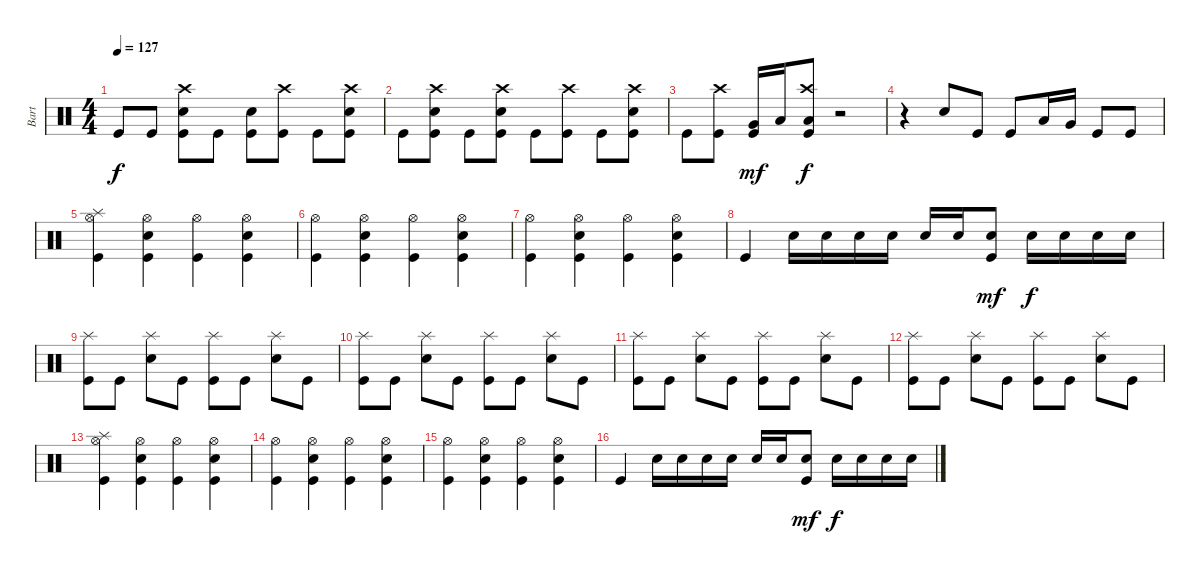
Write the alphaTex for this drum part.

\track ("Bart" "Bart") {instrument percussion}
\staff {score}
\articulation defaults
\ts (4 4)
\tempo 127
\clef neutral
\ks c "Kick (hit)".8{dy f} "Kick (hit)".8
("Kick (hit)" "Electric Snare (hit)" "Crash high (hit)").8 "Kick (hit)".8 ("Kick (hit)" "Electric Snare (hit)").8 ("Kick (hit)" "Crash high (hit)").8 "Kick (hit)".8 ("Kick (hit)" "Electric Snare (hit)" "Crash high (hit)").8 |
"Kick (hit)".8 ("Kick (hit)" "Electric Snare (hit)" "Crash high (hit)").8 "Kick (hit)".8 ("Kick (hit)" "Electric Snare (hit)" "Crash high (hit)").8 "Kick (hit)".8 ("Kick (hit)" "Crash high (hit)").8 "Kick (hit)".8 ("Kick (hit)" "Electric Snare (hit)" "Crash high (hit)").8 |
"Kick (hit)".8 ("Kick (hit)" "Crash high (hit)").8 ("Kick (hit)" "Very Low Tom (hit)").16{dy mf} "Low Tom (hit)".16 ("Kick (hit)" "Low Floor Tom (hit)" "Crash high (hit)").8{dy f} r.2 |
r.4 "Electric Snare (hit)".8 "Kick (hit)".8 "Kick (hit)".8 "Low Tom (hit)".16 "Very Low Tom (hit)".16 "Kick (hit)".8 "Kick (hit)".8 |
("Kick (hit)" "Hi-Hat (open)" "Splash (hit)").4 ("Kick (hit)" "Electric Snare (hit)" "Hi-Hat (open)").4 ("Kick (hit)" "Hi-Hat (open)").4 ("Kick (hit)" "Electric Snare (hit)" "Hi-Hat (open)").4 |
("Kick (hit)" "Hi-Hat (open)").4 ("Kick (hit)" "Electric Snare (hit)" "Hi-Hat (open)").4 ("Kick (hit)" "Hi-Hat (open)").4 ("Kick (hit)" "Electric Snare (hit)" "Hi-Hat (open)").4 |
("Kick (hit)" "Hi-Hat (open)").4 ("Kick (hit)" "Electric Snare (hit)" "Hi-Hat (open)").4 ("Kick (hit)" "Hi-Hat (open)").4 ("Kick (hit)" "Electric Snare (hit)" "Hi-Hat (open)").4 |
"Kick (hit)".4 "Electric Snare (hit)".16 "Electric Snare (hit)".16 "Electric Snare (hit)".16 "Electric Snare (hit)".16 "Electric Snare (hit)".16 "Electric Snare (hit)".16 ("Kick (hit)" "Electric Snare (hit)").8{dy mf} "Electric Snare (hit)".16{dy f} "Electric Snare (hit)".16 "Electric Snare (hit)".16 "Electric Snare (hit)".16 |
("Kick (hit)" "Splash (hit)").8 "Kick (hit)".8 ("Electric Snare (hit)" "Splash (hit)").8 "Kick (hit)".8 ("Kick (hit)" "Splash (hit)").8 "Kick (hit)".8 ("Electric Snare (hit)" "Splash (hit)").8 "Kick (hit)".8 |
("Kick (hit)" "Splash (hit)").8 "Kick (hit)".8 ("Electric Snare (hit)" "Splash (hit)").8 "Kick (hit)".8 ("Kick (hit)" "Splash (hit)").8 "Kick (hit)".8 ("Electric Snare (hit)" "Splash (hit)").8 "Kick (hit)".8 |
("Kick (hit)" "Splash (hit)").8 "Kick (hit)".8 ("Electric Snare (hit)" "Splash (hit)").8 "Kick (hit)".8 ("Kick (hit)" "Splash (hit)").8 "Kick (hit)".8 ("Electric Snare (hit)" "Splash (hit)").8 "Kick (hit)".8 |
("Kick (hit)" "Splash (hit)").8 "Kick (hit)".8 ("Electric Snare (hit)" "Splash (hit)").8 "Kick (hit)".8 ("Kick (hit)" "Splash (hit)").8 "Kick (hit)".8 ("Electric Snare (hit)" "Splash (hit)").8 "Kick (hit)".8 |
("Kick (hit)" "Hi-Hat (open)" "Splash (hit)").4 ("Kick (hit)" "Electric Snare (hit)" "Hi-Hat (open)").4 ("Kick (hit)" "Hi-Hat (open)").4 ("Kick (hit)" "Electric Snare (hit)" "Hi-Hat (open)").4 |
("Kick (hit)" "Hi-Hat (open)").4 ("Kick (hit)" "Electric Snare (hit)" "Hi-Hat (open)").4 ("Kick (hit)" "Hi-Hat (open)").4 ("Kick (hit)" "Electric Snare (hit)" "Hi-Hat (open)").4 |
("Kick (hit)" "Hi-Hat (open)").4 ("Kick (hit)" "Electric Snare (hit)" "Hi-Hat (open)").4 ("Kick (hit)" "Hi-Hat (open)").4 ("Kick (hit)" "Electric Snare (hit)" "Hi-Hat (open)").4 |
"Kick (hit)".4 "Electric Snare (hit)".16 "Electric Snare (hit)".16 "Electric Snare (hit)".16 "Electric Snare (hit)".16 "Electric Snare (hit)".16 "Electric Snare (hit)".16 ("Kick (hit)" "Electric Snare (hit)").8{dy mf} "Electric Snare (hit)".16{dy f} "Electric Snare (hit)".16 "Electric Snare (hit)".16 "Electric Snare (hit)".16
